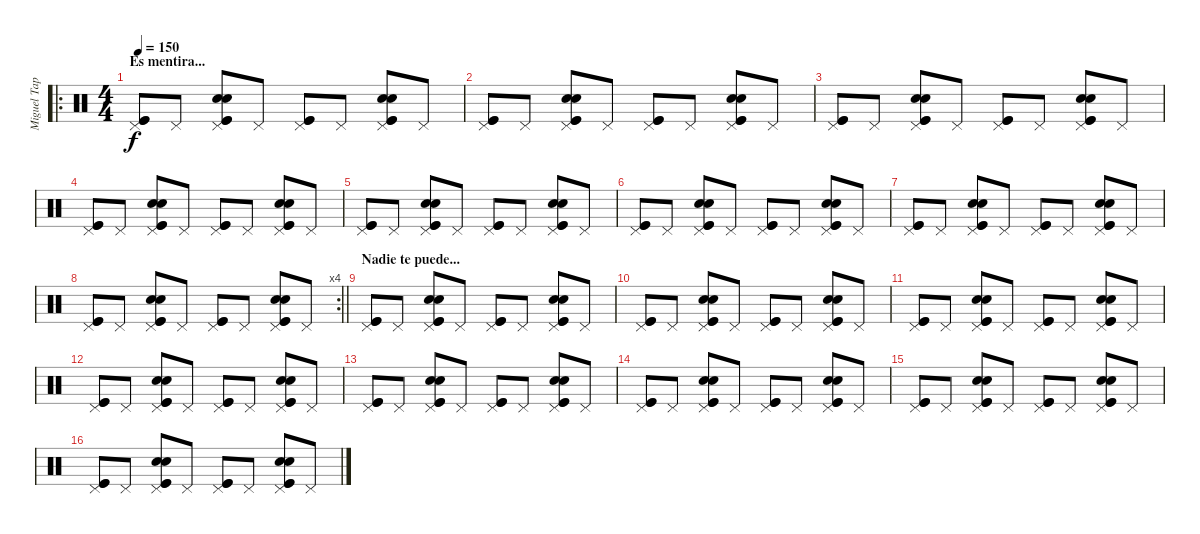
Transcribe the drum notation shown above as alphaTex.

\track ("Miguel Tapia" "Miguel Tap") {instrument percussion}
\staff {score}
\articulation defaults
\ro
\ts (4 4)
\section ("" "Es mentira...")
\tempo 150
\clef neutral
\ks c
("Pedal Hi-Hat (hit)" "Kick (hit)" "Kick (hit)").8{dy f} "Pedal Hi-Hat (hit)".8 ("Pedal Hi-Hat (hit)" "Snare (hit) 2" "Snare (hit) 2" "Kick (hit)" "Kick (hit)").8 "Pedal Hi-Hat (hit)".8 ("Pedal Hi-Hat (hit)" "Kick (hit)" "Kick (hit)").8 "Pedal Hi-Hat (hit)".8 ("Pedal Hi-Hat (hit)" "Snare (hit) 2" "Snare (hit) 2" "Kick (hit)" "Kick (hit)").8 "Pedal Hi-Hat (hit)".8 |
("Pedal Hi-Hat (hit)" "Kick (hit)" "Kick (hit)").8 "Pedal Hi-Hat (hit)".8 ("Pedal Hi-Hat (hit)" "Snare (hit) 2" "Snare (hit) 2" "Kick (hit)" "Kick (hit)").8 "Pedal Hi-Hat (hit)".8 ("Pedal Hi-Hat (hit)" "Kick (hit)" "Kick (hit)").8 "Pedal Hi-Hat (hit)".8 ("Pedal Hi-Hat (hit)" "Snare (hit) 2" "Snare (hit) 2" "Kick (hit)" "Kick (hit)").8 "Pedal Hi-Hat (hit)".8 |
("Pedal Hi-Hat (hit)" "Kick (hit)" "Kick (hit)").8 "Pedal Hi-Hat (hit)".8 ("Pedal Hi-Hat (hit)" "Snare (hit) 2" "Snare (hit) 2" "Kick (hit)" "Kick (hit)").8 "Pedal Hi-Hat (hit)".8 ("Pedal Hi-Hat (hit)" "Kick (hit)" "Kick (hit)").8 "Pedal Hi-Hat (hit)".8 ("Pedal Hi-Hat (hit)" "Snare (hit) 2" "Snare (hit) 2" "Kick (hit)" "Kick (hit)").8 "Pedal Hi-Hat (hit)".8 |
("Pedal Hi-Hat (hit)" "Kick (hit)" "Kick (hit)").8 "Pedal Hi-Hat (hit)".8 ("Pedal Hi-Hat (hit)" "Snare (hit) 2" "Snare (hit) 2" "Kick (hit)" "Kick (hit)").8 "Pedal Hi-Hat (hit)".8 ("Pedal Hi-Hat (hit)" "Kick (hit)" "Kick (hit)").8 "Pedal Hi-Hat (hit)".8 ("Pedal Hi-Hat (hit)" "Snare (hit) 2" "Snare (hit) 2" "Kick (hit)" "Kick (hit)").8 "Pedal Hi-Hat (hit)".8 |
("Pedal Hi-Hat (hit)" "Kick (hit)" "Kick (hit)").8 "Pedal Hi-Hat (hit)".8 ("Pedal Hi-Hat (hit)" "Snare (hit) 2" "Snare (hit) 2" "Kick (hit)" "Kick (hit)").8 "Pedal Hi-Hat (hit)".8 ("Pedal Hi-Hat (hit)" "Kick (hit)" "Kick (hit)").8 "Pedal Hi-Hat (hit)".8 ("Pedal Hi-Hat (hit)" "Snare (hit) 2" "Snare (hit) 2" "Kick (hit)" "Kick (hit)").8 "Pedal Hi-Hat (hit)".8 |
("Pedal Hi-Hat (hit)" "Kick (hit)" "Kick (hit)").8 "Pedal Hi-Hat (hit)".8 ("Pedal Hi-Hat (hit)" "Snare (hit) 2" "Snare (hit) 2" "Kick (hit)" "Kick (hit)").8 "Pedal Hi-Hat (hit)".8 ("Pedal Hi-Hat (hit)" "Kick (hit)" "Kick (hit)").8 "Pedal Hi-Hat (hit)".8 ("Pedal Hi-Hat (hit)" "Snare (hit) 2" "Snare (hit) 2" "Kick (hit)" "Kick (hit)").8 "Pedal Hi-Hat (hit)".8 |
("Pedal Hi-Hat (hit)" "Kick (hit)" "Kick (hit)").8 "Pedal Hi-Hat (hit)".8 ("Pedal Hi-Hat (hit)" "Snare (hit) 2" "Snare (hit) 2" "Kick (hit)" "Kick (hit)").8 "Pedal Hi-Hat (hit)".8 ("Pedal Hi-Hat (hit)" "Kick (hit)" "Kick (hit)").8 "Pedal Hi-Hat (hit)".8 ("Pedal Hi-Hat (hit)" "Snare (hit) 2" "Snare (hit) 2" "Kick (hit)" "Kick (hit)").8 "Pedal Hi-Hat (hit)".8 |
\rc 4
\barLineRight lightlight
("Pedal Hi-Hat (hit)" "Kick (hit)" "Kick (hit)").8 "Pedal Hi-Hat (hit)".8 ("Pedal Hi-Hat (hit)" "Snare (hit) 2" "Snare (hit) 2" "Kick (hit)" "Kick (hit)").8 "Pedal Hi-Hat (hit)".8 ("Pedal Hi-Hat (hit)" "Kick (hit)" "Kick (hit)").8 "Pedal Hi-Hat (hit)".8 ("Pedal Hi-Hat (hit)" "Snare (hit) 2" "Snare (hit) 2" "Kick (hit)" "Kick (hit)").8 "Pedal Hi-Hat (hit)".8 |
\section ("" "Nadie te puede...")
("Pedal Hi-Hat (hit)" "Kick (hit)" "Kick (hit)").8 "Pedal Hi-Hat (hit)".8 ("Pedal Hi-Hat (hit)" "Snare (hit) 2" "Snare (hit) 2" "Kick (hit)" "Kick (hit)").8 "Pedal Hi-Hat (hit)".8 ("Pedal Hi-Hat (hit)" "Kick (hit)" "Kick (hit)").8 "Pedal Hi-Hat (hit)".8 ("Pedal Hi-Hat (hit)" "Snare (hit) 2" "Snare (hit) 2" "Kick (hit)" "Kick (hit)").8 "Pedal Hi-Hat (hit)".8 |
("Pedal Hi-Hat (hit)" "Kick (hit)" "Kick (hit)").8 "Pedal Hi-Hat (hit)".8 ("Pedal Hi-Hat (hit)" "Snare (hit) 2" "Snare (hit) 2" "Kick (hit)" "Kick (hit)").8 "Pedal Hi-Hat (hit)".8 ("Pedal Hi-Hat (hit)" "Kick (hit)" "Kick (hit)").8 "Pedal Hi-Hat (hit)".8 ("Pedal Hi-Hat (hit)" "Snare (hit) 2" "Snare (hit) 2" "Kick (hit)" "Kick (hit)").8 "Pedal Hi-Hat (hit)".8 |
("Pedal Hi-Hat (hit)" "Kick (hit)" "Kick (hit)").8 "Pedal Hi-Hat (hit)".8 ("Pedal Hi-Hat (hit)" "Snare (hit) 2" "Snare (hit) 2" "Kick (hit)" "Kick (hit)").8 "Pedal Hi-Hat (hit)".8 ("Pedal Hi-Hat (hit)" "Kick (hit)" "Kick (hit)").8 "Pedal Hi-Hat (hit)".8 ("Pedal Hi-Hat (hit)" "Snare (hit) 2" "Snare (hit) 2" "Kick (hit)" "Kick (hit)").8 "Pedal Hi-Hat (hit)".8 |
("Pedal Hi-Hat (hit)" "Kick (hit)" "Kick (hit)").8 "Pedal Hi-Hat (hit)".8 ("Pedal Hi-Hat (hit)" "Snare (hit) 2" "Snare (hit) 2" "Kick (hit)" "Kick (hit)").8 "Pedal Hi-Hat (hit)".8 ("Pedal Hi-Hat (hit)" "Kick (hit)" "Kick (hit)").8 "Pedal Hi-Hat (hit)".8 ("Pedal Hi-Hat (hit)" "Snare (hit) 2" "Snare (hit) 2" "Kick (hit)" "Kick (hit)").8 "Pedal Hi-Hat (hit)".8 |
("Pedal Hi-Hat (hit)" "Kick (hit)" "Kick (hit)").8 "Pedal Hi-Hat (hit)".8 ("Pedal Hi-Hat (hit)" "Snare (hit) 2" "Snare (hit) 2" "Kick (hit)" "Kick (hit)").8 "Pedal Hi-Hat (hit)".8 ("Pedal Hi-Hat (hit)" "Kick (hit)" "Kick (hit)").8 "Pedal Hi-Hat (hit)".8 ("Pedal Hi-Hat (hit)" "Snare (hit) 2" "Snare (hit) 2" "Kick (hit)" "Kick (hit)").8 "Pedal Hi-Hat (hit)".8 |
("Pedal Hi-Hat (hit)" "Kick (hit)" "Kick (hit)").8 "Pedal Hi-Hat (hit)".8 ("Pedal Hi-Hat (hit)" "Snare (hit) 2" "Snare (hit) 2" "Kick (hit)" "Kick (hit)").8 "Pedal Hi-Hat (hit)".8 ("Pedal Hi-Hat (hit)" "Kick (hit)" "Kick (hit)").8 "Pedal Hi-Hat (hit)".8 ("Pedal Hi-Hat (hit)" "Snare (hit) 2" "Snare (hit) 2" "Kick (hit)" "Kick (hit)").8 "Pedal Hi-Hat (hit)".8 |
("Pedal Hi-Hat (hit)" "Kick (hit)" "Kick (hit)").8 "Pedal Hi-Hat (hit)".8 ("Pedal Hi-Hat (hit)" "Snare (hit) 2" "Snare (hit) 2" "Kick (hit)" "Kick (hit)").8 "Pedal Hi-Hat (hit)".8 ("Pedal Hi-Hat (hit)" "Kick (hit)" "Kick (hit)").8 "Pedal Hi-Hat (hit)".8 ("Pedal Hi-Hat (hit)" "Snare (hit) 2" "Snare (hit) 2" "Kick (hit)" "Kick (hit)").8 "Pedal Hi-Hat (hit)".8 |
("Pedal Hi-Hat (hit)" "Kick (hit)" "Kick (hit)").8 "Pedal Hi-Hat (hit)".8 ("Pedal Hi-Hat (hit)" "Snare (hit) 2" "Snare (hit) 2" "Kick (hit)" "Kick (hit)").8 "Pedal Hi-Hat (hit)".8 ("Pedal Hi-Hat (hit)" "Kick (hit)" "Kick (hit)").8 "Pedal Hi-Hat (hit)".8 ("Pedal Hi-Hat (hit)" "Snare (hit) 2" "Snare (hit) 2" "Kick (hit)" "Kick (hit)").8 "Pedal Hi-Hat (hit)".8
